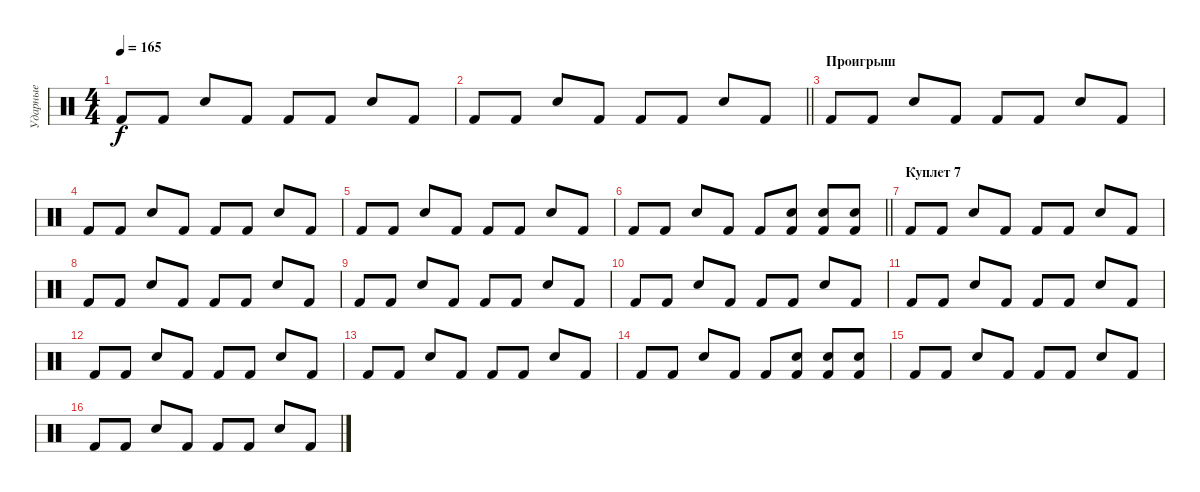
\track ("Ударные" "Ударные") {instrument percussion}
\staff {score}
\articulation defaults
\ts (4 4)
\tempo 165
\clef neutral
\ks c "Kick (hit) 2".8{dy f} "Kick (hit) 2".8 "Snare (hit) 2".8 "Kick (hit) 2".8 "Kick (hit) 2".8 "Kick (hit) 2".8 "Snare (hit) 2".8 "Kick (hit) 2".8
|
\barLineRight lightlight "Kick (hit) 2".8 "Kick (hit) 2".8 "Snare (hit) 2".8 "Kick (hit) 2".8 "Kick (hit) 2".8 "Kick (hit) 2".8 "Snare (hit) 2".8 "Kick (hit) 2".8
|
\section ("" "Проигрыш")
"Kick (hit) 2".8 "Kick (hit) 2".8 "Snare (hit) 2".8 "Kick (hit) 2".8 "Kick (hit) 2".8 "Kick (hit) 2".8 "Snare (hit) 2".8 "Kick (hit) 2".8 |
"Kick (hit) 2".8 "Kick (hit) 2".8 "Snare (hit) 2".8 "Kick (hit) 2".8 "Kick (hit) 2".8 "Kick (hit) 2".8 "Snare (hit) 2".8 "Kick (hit) 2".8 |
"Kick (hit) 2".8 "Kick (hit) 2".8 "Snare (hit) 2".8 "Kick (hit) 2".8 "Kick (hit) 2".8 "Kick (hit) 2".8 "Snare (hit) 2".8 "Kick (hit) 2".8 |
\barLineRight lightlight "Kick (hit) 2".8 "Kick (hit) 2".8 "Snare (hit) 2".8 "Kick (hit) 2".8 "Kick (hit) 2".8
("Kick (hit) 2" "Snare (hit) 2").8 ("Kick (hit) 2" "Snare (hit) 2").8 ("Kick (hit) 2" "Snare (hit) 2").8 |
\section ("" "Куплет 7")
"Kick (hit) 2".8 "Kick (hit) 2".8 "Snare (hit) 2".8 "Kick (hit) 2".8 "Kick (hit) 2".8 "Kick (hit) 2".8 "Snare (hit) 2".8 "Kick (hit) 2".8 |
"Kick (hit) 2".8 "Kick (hit) 2".8 "Snare (hit) 2".8 "Kick (hit) 2".8 "Kick (hit) 2".8 "Kick (hit) 2".8 "Snare (hit) 2".8 "Kick (hit) 2".8 |
"Kick (hit) 2".8 "Kick (hit) 2".8 "Snare (hit) 2".8 "Kick (hit) 2".8 "Kick (hit) 2".8 "Kick (hit) 2".8 "Snare (hit) 2".8 "Kick (hit) 2".8 |
"Kick (hit) 2".8 "Kick (hit) 2".8 "Snare (hit) 2".8 "Kick (hit) 2".8 "Kick (hit) 2".8 "Kick (hit) 2".8 "Snare (hit) 2".8 "Kick (hit) 2".8 |
"Kick (hit) 2".8 "Kick (hit) 2".8 "Snare (hit) 2".8 "Kick (hit) 2".8 "Kick (hit) 2".8 "Kick (hit) 2".8 "Snare (hit) 2".8 "Kick (hit) 2".8 |
"Kick (hit) 2".8 "Kick (hit) 2".8 "Snare (hit) 2".8 "Kick (hit) 2".8 "Kick (hit) 2".8 "Kick (hit) 2".8 "Snare (hit) 2".8 "Kick (hit) 2".8 |
"Kick (hit) 2".8 "Kick (hit) 2".8 "Snare (hit) 2".8 "Kick (hit) 2".8 "Kick (hit) 2".8 "Kick (hit) 2".8 "Snare (hit) 2".8 "Kick (hit) 2".8 |
"Kick (hit) 2".8 "Kick (hit) 2".8 "Snare (hit) 2".8 "Kick (hit) 2".8 "Kick (hit) 2".8 ("Kick (hit) 2" "Snare (hit) 2").8 ("Kick (hit) 2" "Snare (hit) 2").8 ("Kick (hit) 2" "Snare (hit) 2").8 |
"Kick (hit) 2".8 "Kick (hit) 2".8 "Snare (hit) 2".8 "Kick (hit) 2".8 "Kick (hit) 2".8 "Kick (hit) 2".8 "Snare (hit) 2".8 "Kick (hit) 2".8 |
"Kick (hit) 2".8 "Kick (hit) 2".8 "Snare (hit) 2".8 "Kick (hit) 2".8 "Kick (hit) 2".8 "Kick (hit) 2".8 "Snare (hit) 2".8 "Kick (hit) 2".8
